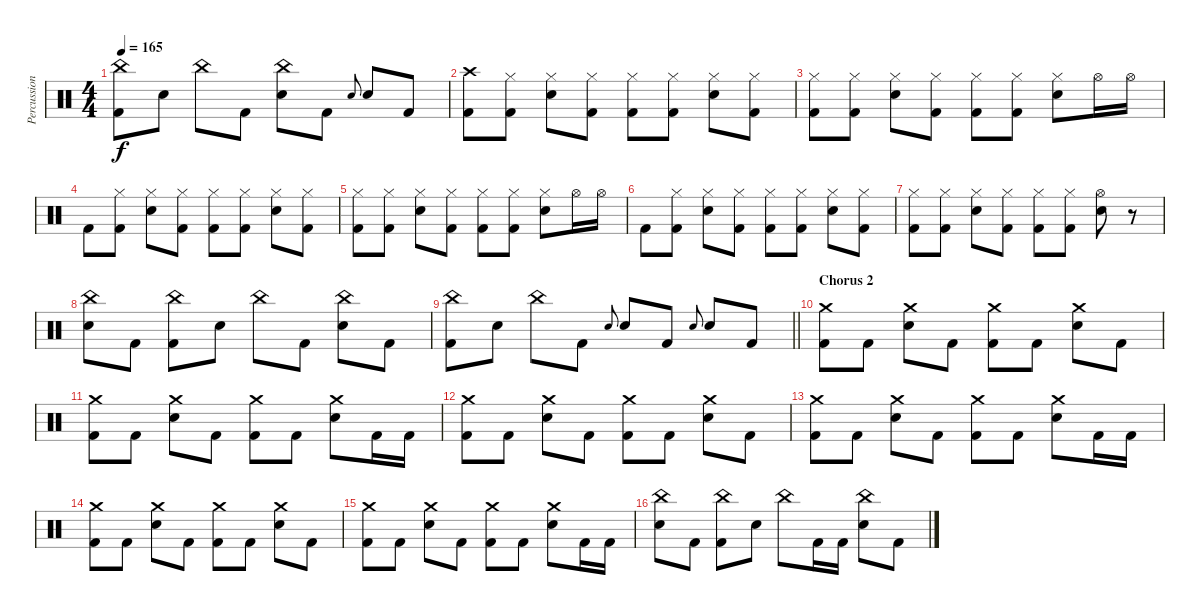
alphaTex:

\track ("Percussions" "Percussion") {instrument percussion}
\staff
\articulation defaults
\ts (4 4)
\tempo 165
\clef neutral
\ks c
("China (hit)" "Kick (hit) 2").8{dy f} "Electric Snare (hit)".8 "China (hit)".8 "Kick (hit) 2".8 ("China (hit)" "Electric Snare (hit)").8 "Kick (hit) 2".8 "Electric Snare (hit)".8{gr onbeat} "Electric Snare (hit)".8 "Kick (hit) 2".8 |
("Crash high (hit)" "Kick (hit) 2").8 ("Hi-Hat (closed)" "Kick (hit) 2").8 ("Hi-Hat (closed)" "Electric Snare (hit)").8 ("Hi-Hat (closed)" "Kick (hit) 2").8 ("Hi-Hat (closed)" "Kick (hit) 2").8 ("Hi-Hat (closed)" "Kick (hit) 2").8 ("Hi-Hat (closed)" "Electric Snare (hit)").8 ("Hi-Hat (closed)" "Kick (hit) 2").8 |
("Hi-Hat (closed)" "Kick (hit) 2").8 ("Hi-Hat (closed)" "Kick (hit) 2").8 ("Hi-Hat (closed)" "Electric Snare (hit)").8 ("Hi-Hat (closed)" "Kick (hit) 2").8 ("Hi-Hat (closed)" "Kick (hit) 2").8 ("Hi-Hat (closed)" "Kick (hit) 2").8 ("Hi-Hat (closed)" "Electric Snare (hit)").8 "Hi-Hat (open)".16 "Hi-Hat (open)".16 |
"Kick (hit) 2".8 ("Hi-Hat (closed)" "Kick (hit) 2").8 ("Hi-Hat (closed)" "Electric Snare (hit)").8 ("Hi-Hat (closed)" "Kick (hit) 2").8 ("Hi-Hat (closed)" "Kick (hit) 2").8 ("Hi-Hat (closed)" "Kick (hit) 2").8 ("Hi-Hat (closed)" "Electric Snare (hit)").8 ("Hi-Hat (closed)" "Kick (hit) 2").8 |
("Hi-Hat (closed)" "Kick (hit) 2").8 ("Hi-Hat (closed)" "Kick (hit) 2").8 ("Hi-Hat (closed)" "Electric Snare (hit)").8 ("Hi-Hat (closed)" "Kick (hit) 2").8 ("Hi-Hat (closed)" "Kick (hit) 2").8 ("Hi-Hat (closed)" "Kick (hit) 2").8 ("Hi-Hat (closed)" "Electric Snare (hit)").8 "Hi-Hat (open)".16 "Hi-Hat (open)".16 |
"Kick (hit) 2".8 ("Hi-Hat (closed)" "Kick (hit) 2").8 ("Hi-Hat (closed)" "Electric Snare (hit)").8 ("Hi-Hat (closed)" "Kick (hit) 2").8 ("Hi-Hat (closed)" "Kick (hit) 2").8 ("Hi-Hat (closed)" "Kick (hit) 2").8 ("Hi-Hat (closed)" "Electric Snare (hit)").8 ("Hi-Hat (closed)" "Kick (hit) 2").8 |
("Hi-Hat (closed)" "Kick (hit) 2").8 ("Hi-Hat (closed)" "Kick (hit) 2").8 ("Hi-Hat (closed)" "Electric Snare (hit)").8 ("Hi-Hat (closed)" "Kick (hit) 2").8 ("Hi-Hat (closed)" "Kick (hit) 2").8 ("Hi-Hat (closed)" "Kick (hit) 2").8 ("Hi-Hat (open)" "Electric Snare (hit)").8 r.8 |
("China (hit)" "Electric Snare (hit)").8 "Kick (hit) 2".8 ("China (hit)" "Kick (hit) 2").8 "Electric Snare (hit)".8 "China (hit)".8 "Kick (hit) 2".8 ("China (hit)" "Electric Snare (hit)").8 "Kick (hit) 2".8 |
\barLineRight lightlight
("China (hit)" "Kick (hit) 2").8 "Electric Snare (hit)".8 "China (hit)".8 "Kick (hit) 2".8 "Electric Snare (hit)".8{gr onbeat} "Electric Snare (hit)".8 "Kick (hit) 2".8 "Electric Snare (hit)".8{gr onbeat} "Electric Snare (hit)".8 "Kick (hit) 2".8 |
\section ("" "Chorus 2")
("Crash medium (hit)" "Kick (hit) 2").8 "Kick (hit) 2".8 ("Crash medium (hit)" "Electric Snare (hit)").8 "Kick (hit) 2".8 ("Crash medium (hit)" "Kick (hit) 2").8 "Kick (hit) 2".8 ("Crash medium (hit)" "Electric Snare (hit)").8 "Kick (hit) 2".8 |
("Crash medium (hit)" "Kick (hit) 2").8 "Kick (hit) 2".8 ("Crash medium (hit)" "Electric Snare (hit)").8 "Kick (hit) 2".8 ("Crash medium (hit)" "Kick (hit) 2").8 "Kick (hit) 2".8 ("Crash medium (hit)" "Electric Snare (hit)").8 "Kick (hit) 2".16 "Kick (hit) 2".16 |
("Crash medium (hit)" "Kick (hit) 2").8 "Kick (hit) 2".8 ("Crash medium (hit)" "Electric Snare (hit)").8 "Kick (hit) 2".8 ("Crash medium (hit)" "Kick (hit) 2").8 "Kick (hit) 2".8 ("Crash medium (hit)" "Electric Snare (hit)").8 "Kick (hit) 2".8 |
("Crash medium (hit)" "Kick (hit) 2").8 "Kick (hit) 2".8 ("Crash medium (hit)" "Electric Snare (hit)").8 "Kick (hit) 2".8 ("Crash medium (hit)" "Kick (hit) 2").8 "Kick (hit) 2".8 ("Crash medium (hit)" "Electric Snare (hit)").8 "Kick (hit) 2".16 "Kick (hit) 2".16 |
("Crash medium (hit)" "Kick (hit) 2").8 "Kick (hit) 2".8 ("Crash medium (hit)" "Electric Snare (hit)").8 "Kick (hit) 2".8 ("Crash medium (hit)" "Kick (hit) 2").8 "Kick (hit) 2".8 ("Crash medium (hit)" "Electric Snare (hit)").8 "Kick (hit) 2".8 |
("Crash medium (hit)" "Kick (hit) 2").8 "Kick (hit) 2".8 ("Crash medium (hit)" "Electric Snare (hit)").8 "Kick (hit) 2".8 ("Crash medium (hit)" "Kick (hit) 2").8 "Kick (hit) 2".8 ("Crash medium (hit)" "Electric Snare (hit)").8 "Kick (hit) 2".16 "Kick (hit) 2".16 |
("China (hit)" "Electric Snare (hit)").8 "Kick (hit) 2".8 ("China (hit)" "Kick (hit) 2").8 "Electric Snare (hit)".8 "China (hit)".8 "Kick (hit) 2".16 "Kick (hit) 2".16 ("China (hit)" "Electric Snare (hit)").8 "Kick (hit) 2".8
